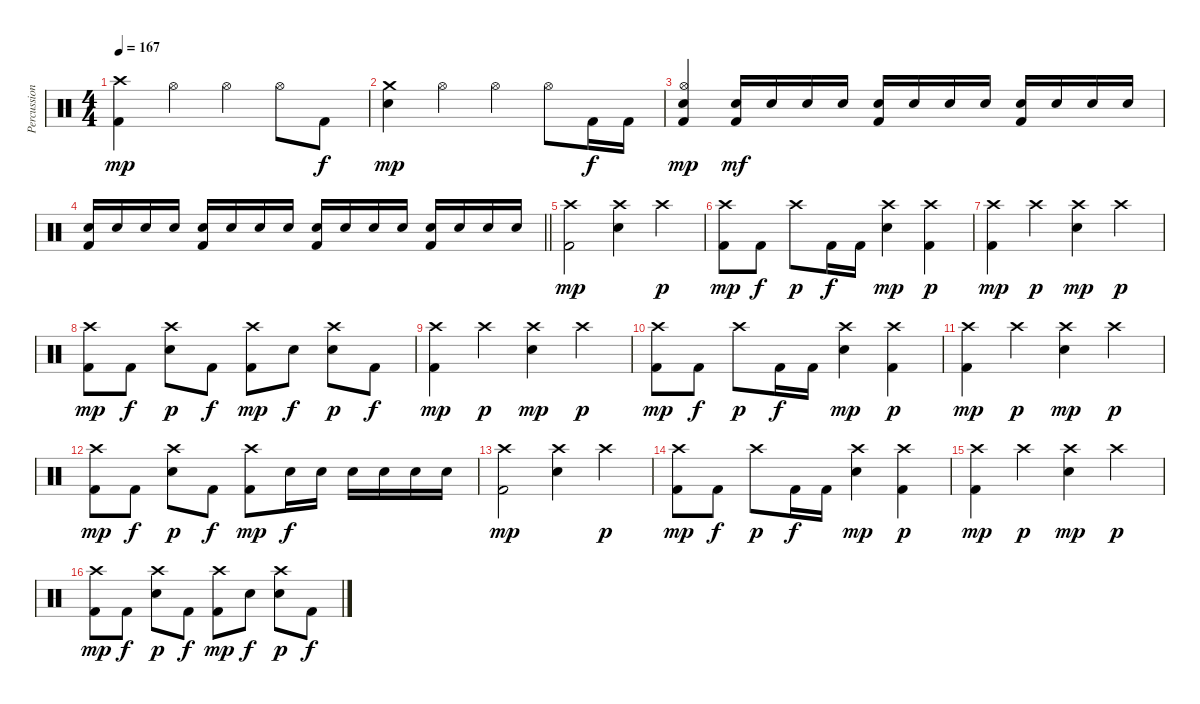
\track ("Percussion" "Percussion") {instrument percussion}
\staff {score}
\articulation defaults
\ts (4 4)
\tempo 167
\clef neutral
\ks c
("Crash high (hit)" "Kick (hit) 2").4{dy mp} "Hi-Hat (open)".4 "Hi-Hat (open)".4 "Hi-Hat (open)".8 "Kick (hit) 2".8{dy f} |
("Crash medium (hit)" "Snare (hit) 2").4{dy mp} "Hi-Hat (open)".4 "Hi-Hat (open)".4 "Hi-Hat (open)".8 "Kick (hit) 2".16{dy f} "Kick (hit) 2".16 |
("Hi-Hat (open)" "Snare (hit) 2" "Kick (hit) 2").4{dy mp} ("Snare (hit) 2" "Kick (hit) 2").16{dy mf} "Snare (hit) 2".16 "Snare (hit) 2".16 "Snare (hit) 2".16 ("Snare (hit) 2" "Kick (hit) 2").16 "Snare (hit) 2".16 "Snare (hit) 2".16 "Snare (hit) 2".16 ("Snare (hit) 2" "Kick (hit) 2").16 "Snare (hit) 2".16 "Snare (hit) 2".16 "Snare (hit) 2".16 |
\barLineRight lightlight
("Snare (hit) 2" "Kick (hit) 2").16 "Snare (hit) 2".16 "Snare (hit) 2".16 "Snare (hit) 2".16 ("Snare (hit) 2" "Kick (hit) 2").16 "Snare (hit) 2".16 "Snare (hit) 2".16 "Snare (hit) 2".16 ("Snare (hit) 2" "Kick (hit) 2").16 "Snare (hit) 2".16 "Snare (hit) 2".16 "Snare (hit) 2".16 ("Snare (hit) 2" "Kick (hit) 2").16 "Snare (hit) 2".16 "Snare (hit) 2".16 "Snare (hit) 2".16 |
("Crash high (hit)" "Kick (hit) 2").2{dy mp} ("Crash high (hit)" "Snare (hit) 2").4 "Crash high (hit)".4{dy p} |
("Crash high (hit)" "Kick (hit) 2").8{dy mp} "Kick (hit) 2".8{dy f} "Crash high (hit)".8{dy p} "Kick (hit) 2".16{dy f} "Kick (hit) 2".16 ("Crash high (hit)" "Snare (hit) 2").4{dy mp} ("Crash high (hit)" "Kick (hit) 2").4{dy p} |
("Crash high (hit)" "Kick (hit) 2").4{dy mp} "Crash high (hit)".4{dy p} ("Crash high (hit)" "Snare (hit) 2").4{dy mp} "Crash high (hit)".4{dy p} |
("Crash high (hit)" "Kick (hit) 2").8{dy mp} "Kick (hit) 2".8{dy f} ("Crash high (hit)" "Snare (hit) 2").8{dy p} "Kick (hit) 2".8{dy f} ("Crash high (hit)" "Kick (hit) 2").8{dy mp} "Snare (hit) 2".8{dy f} ("Crash high (hit)" "Snare (hit) 2").8{dy p} "Kick (hit) 2".8{dy f} |
("Crash high (hit)" "Kick (hit) 2").4{dy mp} "Crash high (hit)".4{dy p} ("Crash high (hit)" "Snare (hit) 2").4{dy mp} "Crash high (hit)".4{dy p} |
("Crash high (hit)" "Kick (hit) 2").8{dy mp} "Kick (hit) 2".8{dy f} "Crash high (hit)".8{dy p} "Kick (hit) 2".16{dy f} "Kick (hit) 2".16 ("Crash high (hit)" "Snare (hit) 2").4{dy mp} ("Crash high (hit)" "Kick (hit) 2").4{dy p} |
("Crash high (hit)" "Kick (hit) 2").4{dy mp} "Crash high (hit)".4{dy p} ("Crash high (hit)" "Snare (hit) 2").4{dy mp} "Crash high (hit)".4{dy p} |
("Crash high (hit)" "Kick (hit) 2").8{dy mp} "Kick (hit) 2".8{dy f} ("Crash high (hit)" "Snare (hit) 2").8{dy p} "Kick (hit) 2".8{dy f} ("Crash high (hit)" "Kick (hit) 2").8{dy mp} "Snare (hit) 2".16{dy f} "Snare (hit) 2".16 "Snare (hit) 2".16 "Snare (hit) 2".16 "Snare (hit) 2".16 "Snare (hit) 2".16 |
("Crash high (hit)" "Kick (hit) 2").2{dy mp} ("Crash high (hit)" "Snare (hit) 2").4 "Crash high (hit)".4{dy p} |
("Crash high (hit)" "Kick (hit) 2").8{dy mp} "Kick (hit) 2".8{dy f} "Crash high (hit)".8{dy p} "Kick (hit) 2".16{dy f} "Kick (hit) 2".16 ("Crash high (hit)" "Snare (hit) 2").4{dy mp} ("Crash high (hit)" "Kick (hit) 2").4{dy p} |
("Crash high (hit)" "Kick (hit) 2").4{dy mp} "Crash high (hit)".4{dy p} ("Crash high (hit)" "Snare (hit) 2").4{dy mp} "Crash high (hit)".4{dy p} |
("Crash high (hit)" "Kick (hit) 2").8{dy mp} "Kick (hit) 2".8{dy f} ("Crash high (hit)" "Snare (hit) 2").8{dy p} "Kick (hit) 2".8{dy f} ("Crash high (hit)" "Kick (hit) 2").8{dy mp} "Snare (hit) 2".8{dy f} ("Crash high (hit)" "Snare (hit) 2").8{dy p} "Kick (hit) 2".8{dy f}
